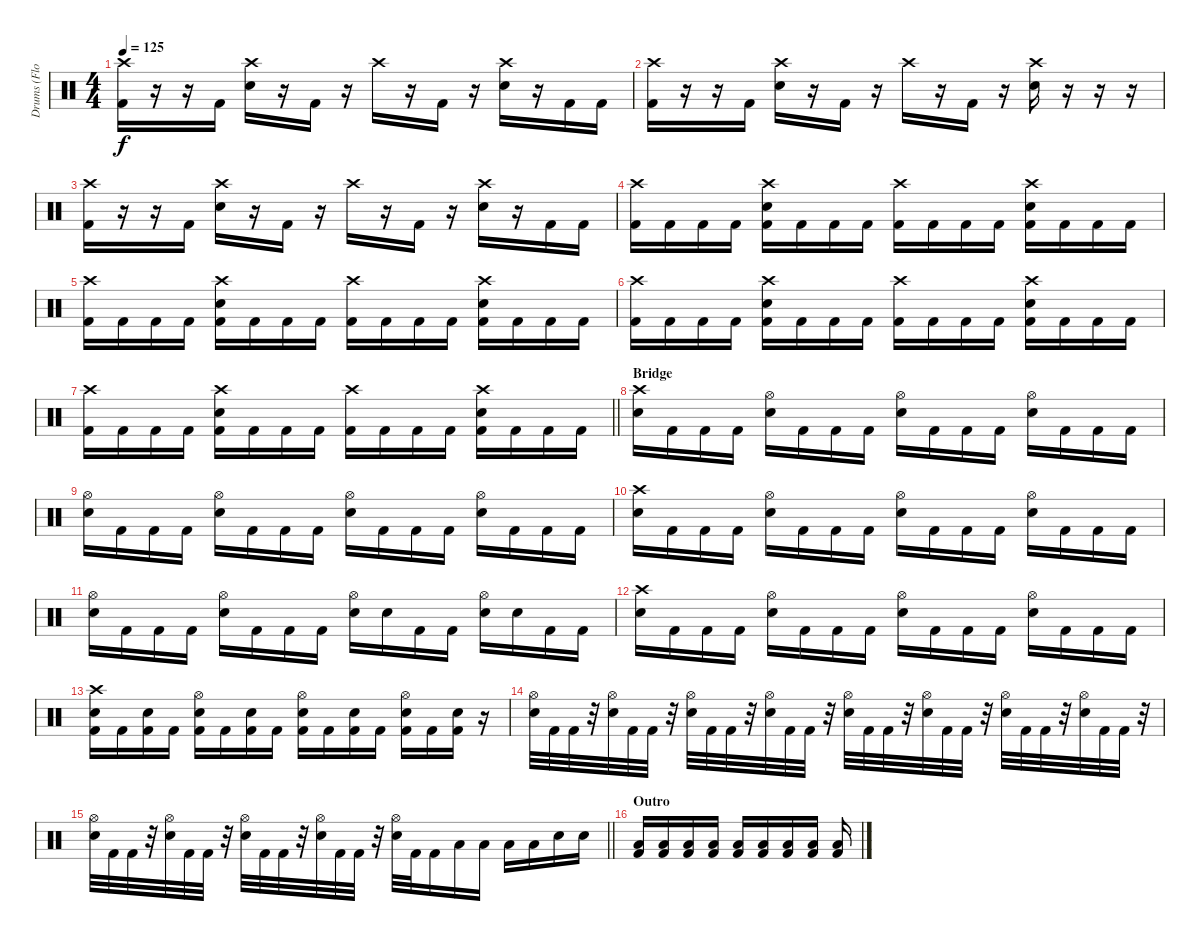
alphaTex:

\track ("Drums (Floboter)" "Drums (Flo") {instrument percussion}
\staff {score}
\articulation defaults
\ts (4 4)
\tempo 125
\clef neutral
\ks c
("Crash high (hit)" "Kick (hit) 2").16{dy f} r.16 r.16 "Kick (hit) 2".16 ("Crash high (hit)" "Snare (hit) 2").16 r.16 "Kick (hit) 2".16 r.16 "Crash high (hit)".16 r.16 "Kick (hit) 2".16 r.16 ("Crash high (hit)" "Snare (hit) 2").16 r.16 "Kick (hit) 2".16 "Kick (hit) 2".16 |
("Crash high (hit)" "Kick (hit) 2").16 r.16 r.16 "Kick (hit) 2".16 ("Crash high (hit)" "Snare (hit) 2").16 r.16 "Kick (hit) 2".16 r.16 "Crash high (hit)".16 r.16 "Kick (hit) 2".16 r.16 ("Crash high (hit)" "Snare (hit) 2").16 r.16 r.16 r.16 |
("Crash high (hit)" "Kick (hit) 2").16 r.16 r.16 "Kick (hit) 2".16 ("Crash high (hit)" "Snare (hit) 2").16 r.16 "Kick (hit) 2".16 r.16 "Crash high (hit)".16 r.16 "Kick (hit) 2".16 r.16 ("Crash high (hit)" "Snare (hit) 2").16 r.16 "Kick (hit) 2".16 "Kick (hit) 2".16 |
("Crash high (hit)" "Kick (hit) 2").16 "Kick (hit) 2".16 "Kick (hit) 2".16 "Kick (hit) 2".16 ("Crash high (hit)" "Snare (hit) 2" "Kick (hit) 2").16 "Kick (hit) 2".16 "Kick (hit) 2".16 "Kick (hit) 2".16 ("Crash high (hit)" "Kick (hit) 2").16 "Kick (hit) 2".16 "Kick (hit) 2".16 "Kick (hit) 2".16 ("Crash high (hit)" "Snare (hit) 2" "Kick (hit) 2").16 "Kick (hit) 2".16 "Kick (hit) 2".16 "Kick (hit) 2".16 |
("Crash high (hit)" "Kick (hit) 2").16 "Kick (hit) 2".16 "Kick (hit) 2".16 "Kick (hit) 2".16 ("Crash high (hit)" "Snare (hit) 2" "Kick (hit) 2").16 "Kick (hit) 2".16 "Kick (hit) 2".16 "Kick (hit) 2".16 ("Crash high (hit)" "Kick (hit) 2").16 "Kick (hit) 2".16 "Kick (hit) 2".16 "Kick (hit) 2".16 ("Crash high (hit)" "Snare (hit) 2" "Kick (hit) 2").16 "Kick (hit) 2".16 "Kick (hit) 2".16 "Kick (hit) 2".16 |
("Crash high (hit)" "Kick (hit) 2").16 "Kick (hit) 2".16 "Kick (hit) 2".16 "Kick (hit) 2".16 ("Crash high (hit)" "Snare (hit) 2" "Kick (hit) 2").16 "Kick (hit) 2".16 "Kick (hit) 2".16 "Kick (hit) 2".16 ("Crash high (hit)" "Kick (hit) 2").16 "Kick (hit) 2".16 "Kick (hit) 2".16 "Kick (hit) 2".16 ("Crash high (hit)" "Snare (hit) 2" "Kick (hit) 2").16 "Kick (hit) 2".16 "Kick (hit) 2".16 "Kick (hit) 2".16 |
\barLineRight lightlight
("Crash high (hit)" "Kick (hit) 2").16 "Kick (hit) 2".16 "Kick (hit) 2".16 "Kick (hit) 2".16 ("Crash high (hit)" "Snare (hit) 2" "Kick (hit) 2").16 "Kick (hit) 2".16 "Kick (hit) 2".16 "Kick (hit) 2".16 ("Crash high (hit)" "Kick (hit) 2").16 "Kick (hit) 2".16 "Kick (hit) 2".16 "Kick (hit) 2".16 ("Crash high (hit)" "Snare (hit) 2" "Kick (hit) 2").16 "Kick (hit) 2".16 "Kick (hit) 2".16 "Kick (hit) 2".16 |
\section ("" "Bridge")
("Crash high (hit)" "Snare (hit) 2").16 "Kick (hit) 2".16 "Kick (hit) 2".16 "Kick (hit) 2".16 ("Hi-Hat (open)" "Snare (hit) 2").16 "Kick (hit) 2".16 "Kick (hit) 2".16 "Kick (hit) 2".16 ("Hi-Hat (open)" "Snare (hit) 2").16 "Kick (hit) 2".16 "Kick (hit) 2".16 "Kick (hit) 2".16 ("Hi-Hat (open)" "Snare (hit) 2").16 "Kick (hit) 2".16 "Kick (hit) 2".16 "Kick (hit) 2".16 |
("Hi-Hat (open)" "Snare (hit) 2").16 "Kick (hit) 2".16 "Kick (hit) 2".16 "Kick (hit) 2".16 ("Hi-Hat (open)" "Snare (hit) 2").16 "Kick (hit) 2".16 "Kick (hit) 2".16 "Kick (hit) 2".16 ("Hi-Hat (open)" "Snare (hit) 2").16 "Kick (hit) 2".16 "Kick (hit) 2".16 "Kick (hit) 2".16 ("Hi-Hat (open)" "Snare (hit) 2").16 "Kick (hit) 2".16 "Kick (hit) 2".16 "Kick (hit) 2".16 |
("Crash high (hit)" "Snare (hit) 2").16 "Kick (hit) 2".16 "Kick (hit) 2".16 "Kick (hit) 2".16 ("Hi-Hat (open)" "Snare (hit) 2").16 "Kick (hit) 2".16 "Kick (hit) 2".16 "Kick (hit) 2".16 ("Hi-Hat (open)" "Snare (hit) 2").16 "Kick (hit) 2".16 "Kick (hit) 2".16 "Kick (hit) 2".16 ("Hi-Hat (open)" "Snare (hit) 2").16 "Kick (hit) 2".16 "Kick (hit) 2".16 "Kick (hit) 2".16 |
("Hi-Hat (open)" "Snare (hit) 2").16 "Kick (hit) 2".16 "Kick (hit) 2".16 "Kick (hit) 2".16 ("Hi-Hat (open)" "Snare (hit) 2").16 "Kick (hit) 2".16 "Kick (hit) 2".16 "Kick (hit) 2".16 ("Hi-Hat (open)" "Snare (hit) 2").16 "Snare (hit) 2".16 "Kick (hit) 2".16 "Kick (hit) 2".16 ("Hi-Hat (open)" "Snare (hit) 2").16 "Snare (hit) 2".16 "Kick (hit) 2".16 "Kick (hit) 2".16 |
("Crash high (hit)" "Snare (hit) 2").16 "Kick (hit) 2".16 "Kick (hit) 2".16 "Kick (hit) 2".16 ("Hi-Hat (open)" "Snare (hit) 2").16 "Kick (hit) 2".16 "Kick (hit) 2".16 "Kick (hit) 2".16 ("Hi-Hat (open)" "Snare (hit) 2").16 "Kick (hit) 2".16 "Kick (hit) 2".16 "Kick (hit) 2".16 ("Hi-Hat (open)" "Snare (hit) 2").16 "Kick (hit) 2".16 "Kick (hit) 2".16 "Kick (hit) 2".16 |
("Crash high (hit)" "Snare (hit) 2" "Kick (hit) 2").16 "Kick (hit) 2".16 ("Snare (hit) 2" "Kick (hit) 2").16 "Kick (hit) 2".16 ("Hi-Hat (open)" "Snare (hit) 2" "Kick (hit) 2").16 "Kick (hit) 2".16 ("Snare (hit) 2" "Kick (hit) 2").16 "Kick (hit) 2".16 ("Hi-Hat (open)" "Snare (hit) 2" "Kick (hit) 2").16 "Kick (hit) 2".16 ("Snare (hit) 2" "Kick (hit) 2").16 "Kick (hit) 2".16 ("Hi-Hat (open)" "Snare (hit) 2" "Kick (hit) 2").16 "Kick (hit) 2".16 ("Snare (hit) 2" "Kick (hit) 2").16 r.16 |
("Hi-Hat (open)" "Snare (hit) 2").32 "Kick (hit) 2".32 "Kick (hit) 2".32 r.32 ("Hi-Hat (open)" "Snare (hit) 2").32 "Kick (hit) 2".32 "Kick (hit) 2".32 r.32 ("Hi-Hat (open)" "Snare (hit) 2").32 "Kick (hit) 2".32 "Kick (hit) 2".32 r.32 ("Hi-Hat (open)" "Snare (hit) 2").32 "Kick (hit) 2".32 "Kick (hit) 2".32 r.32 ("Hi-Hat (open)" "Snare (hit) 2").32 "Kick (hit) 2".32 "Kick (hit) 2".32 r.32 ("Hi-Hat (open)" "Snare (hit) 2").32 "Kick (hit) 2".32 "Kick (hit) 2".32 r.32 ("Hi-Hat (open)" "Snare (hit) 2").32 "Kick (hit) 2".32 "Kick (hit) 2".32 r.32 ("Hi-Hat (open)" "Snare (hit) 2").32 "Kick (hit) 2".32 "Kick (hit) 2".32 r.32 |
\barLineRight lightlight
("Hi-Hat (open)" "Snare (hit) 2").32 "Kick (hit) 2".32 "Kick (hit) 2".32 r.32 ("Hi-Hat (open)" "Snare (hit) 2").32 "Kick (hit) 2".32 "Kick (hit) 2".32 r.32 ("Hi-Hat (open)" "Snare (hit) 2").32 "Kick (hit) 2".32 "Kick (hit) 2".32 r.32 ("Hi-Hat (open)" "Snare (hit) 2").32 "Kick (hit) 2".32 "Kick (hit) 2".32 r.32 ("Hi-Hat (open)" "Snare (hit) 2").32 "Kick (hit) 2".32 "Kick (hit) 2".16 "Low Tom (hit)".16 "Low Tom (hit)".16 "Low Floor Tom (hit)".16 "Low Floor Tom (hit)".16 "Snare (hit) 2".16 "Snare (hit) 2".16 |
\section ("" "Outro")
("Low Floor Tom (hit)" "Kick (hit) 2").16 ("Low Floor Tom (hit)" "Kick (hit) 2").16 ("Low Floor Tom (hit)" "Kick (hit) 2").16 ("Low Floor Tom (hit)" "Kick (hit) 2").16 ("Low Floor Tom (hit)" "Kick (hit) 2").16 ("Low Floor Tom (hit)" "Kick (hit) 2").16 ("Low Floor Tom (hit)" "Kick (hit) 2").16 ("Low Floor Tom (hit)" "Kick (hit) 2").16 ("Low Floor Tom (hit)" "Kick (hit) 2").16
